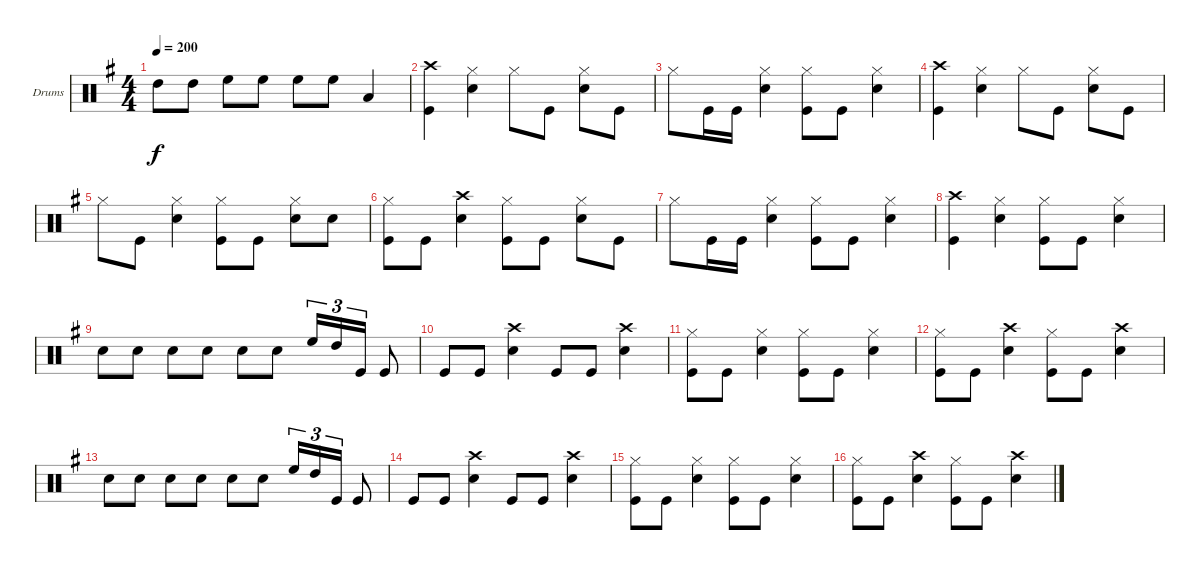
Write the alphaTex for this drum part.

\bracketExtendMode groupsimilarinstruments
\firstSystemTrackNameOrientation horizontal
\otherSystemsTrackNameOrientation horizontal
\track ("Drumkit" "Drums") {instrument percussion}
\staff {score}
\articulation defaults
\ts (4 4)
\tempo 200
\clef neutral
\ks g "High Tom (hit)".8{dy f} "High Tom (hit)".8 "High Floor Tom (hit)".8 "High Floor Tom (hit)".8 "High Floor Tom (hit)".8 "High Floor Tom (hit)".8 "Low Tom (hit)".4
|
("Kick (hit)" "Crash high (hit)").4 ("Hi-Hat (closed)" "Snare (hit) 2").4 "Hi-Hat (closed)".8 "Kick (hit)".8 ("Snare (hit) 2" "Hi-Hat (closed)").8 "Kick (hit)".8 |
"Hi-Hat (closed)".8 "Kick (hit)".16 "Kick (hit)".16 ("Snare (hit) 2" "Hi-Hat (closed)").4 ("Kick (hit)" "Hi-Hat (closed)").8 "Kick (hit)".8 ("Snare (hit) 2" "Hi-Hat (closed)").4 |
("Kick (hit)" "Crash high (hit)").4 ("Snare (hit) 2" "Hi-Hat (closed)").4 "Hi-Hat (closed)".8 "Kick (hit)".8 ("Snare (hit) 2" "Hi-Hat (closed)").8 "Kick (hit)".8 |
"Hi-Hat (closed)".8 "Kick (hit)".8 ("Snare (hit) 2" "Hi-Hat (closed)").4 ("Kick (hit)" "Hi-Hat (closed)").8 "Kick (hit)".8 ("Snare (hit) 2" "Hi-Hat (closed)").8 "Snare (hit) 2".8 |
("Hi-Hat (closed)" "Kick (hit)").8 "Kick (hit)".8 ("Crash high (hit)" "Snare (hit) 2").4 ("Hi-Hat (closed)" "Kick (hit)").8 "Kick (hit)".8 ("Snare (hit) 2" "Hi-Hat (closed)").8 "Kick (hit)".8 |
"Hi-Hat (closed)".8 "Kick (hit)".16 "Kick (hit)".16 ("Snare (hit) 2" "Hi-Hat (closed)").4 ("Kick (hit)" "Hi-Hat (closed)").8 "Kick (hit)".8 ("Snare (hit) 2" "Hi-Hat (closed)").4 |
("Kick (hit)" "Crash high (hit)").4 ("Snare (hit) 2" "Hi-Hat (closed)").4 ("Hi-Hat (closed)" "Kick (hit)").8 "Kick (hit)".8 ("Snare (hit) 2" "Hi-Hat (closed)").4 |
"Snare (hit) 2".8 "Snare (hit) 2".8 "Snare (hit) 2".8 "Snare (hit) 2".8 "Snare (hit) 2".8 "Snare (hit) 2".8 "High Floor Tom (hit)".16{tu (3 2)} "High Tom (hit)".16{tu (3 2)} "Kick (hit)".16{tu (3 2)} "Kick (hit)".8 |
"Kick (hit)".8 "Kick (hit)".8 ("Crash high (hit)" "Snare (hit) 2").4 "Kick (hit)".8 "Kick (hit)".8 ("Crash high (hit)" "Snare (hit) 2").4 |
("Kick (hit)" "Hi-Hat (closed)").8 "Kick (hit)".8 ("Snare (hit) 2" "Hi-Hat (closed)").4 ("Kick (hit)" "Hi-Hat (closed)").8 "Kick (hit)".8 ("Snare (hit) 2" "Hi-Hat (closed)").4 |
("Kick (hit)" "Hi-Hat (closed)").8 "Kick (hit)".8 ("Snare (hit) 2" "Crash high (hit)").4 ("Kick (hit)" "Hi-Hat (closed)").8 "Kick (hit)".8 ("Crash high (hit)" "Snare (hit) 2").4 |
"Snare (hit) 2".8 "Snare (hit) 2".8 "Snare (hit) 2".8 "Snare (hit) 2".8 "Snare (hit) 2".8 "Snare (hit) 2".8 "High Floor Tom (hit)".16{tu (3 2)} "High Tom (hit)".16{tu (3 2)} "Kick (hit)".16{tu (3 2)} "Kick (hit)".8 |
"Kick (hit)".8 "Kick (hit)".8 ("Crash high (hit)" "Snare (hit) 2").4 "Kick (hit)".8 "Kick (hit)".8 ("Crash high (hit)" "Snare (hit) 2").4 |
("Kick (hit)" "Hi-Hat (closed)").8 "Kick (hit)".8 ("Snare (hit) 2" "Hi-Hat (closed)").4 ("Kick (hit)" "Hi-Hat (closed)").8 "Kick (hit)".8 ("Snare (hit) 2" "Hi-Hat (closed)").4 |
("Kick (hit)" "Hi-Hat (closed)").8 "Kick (hit)".8 ("Snare (hit) 2" "Crash high (hit)").4 ("Kick (hit)" "Hi-Hat (closed)").8 "Kick (hit)".8 ("Crash high (hit)" "Snare (hit) 2").4
